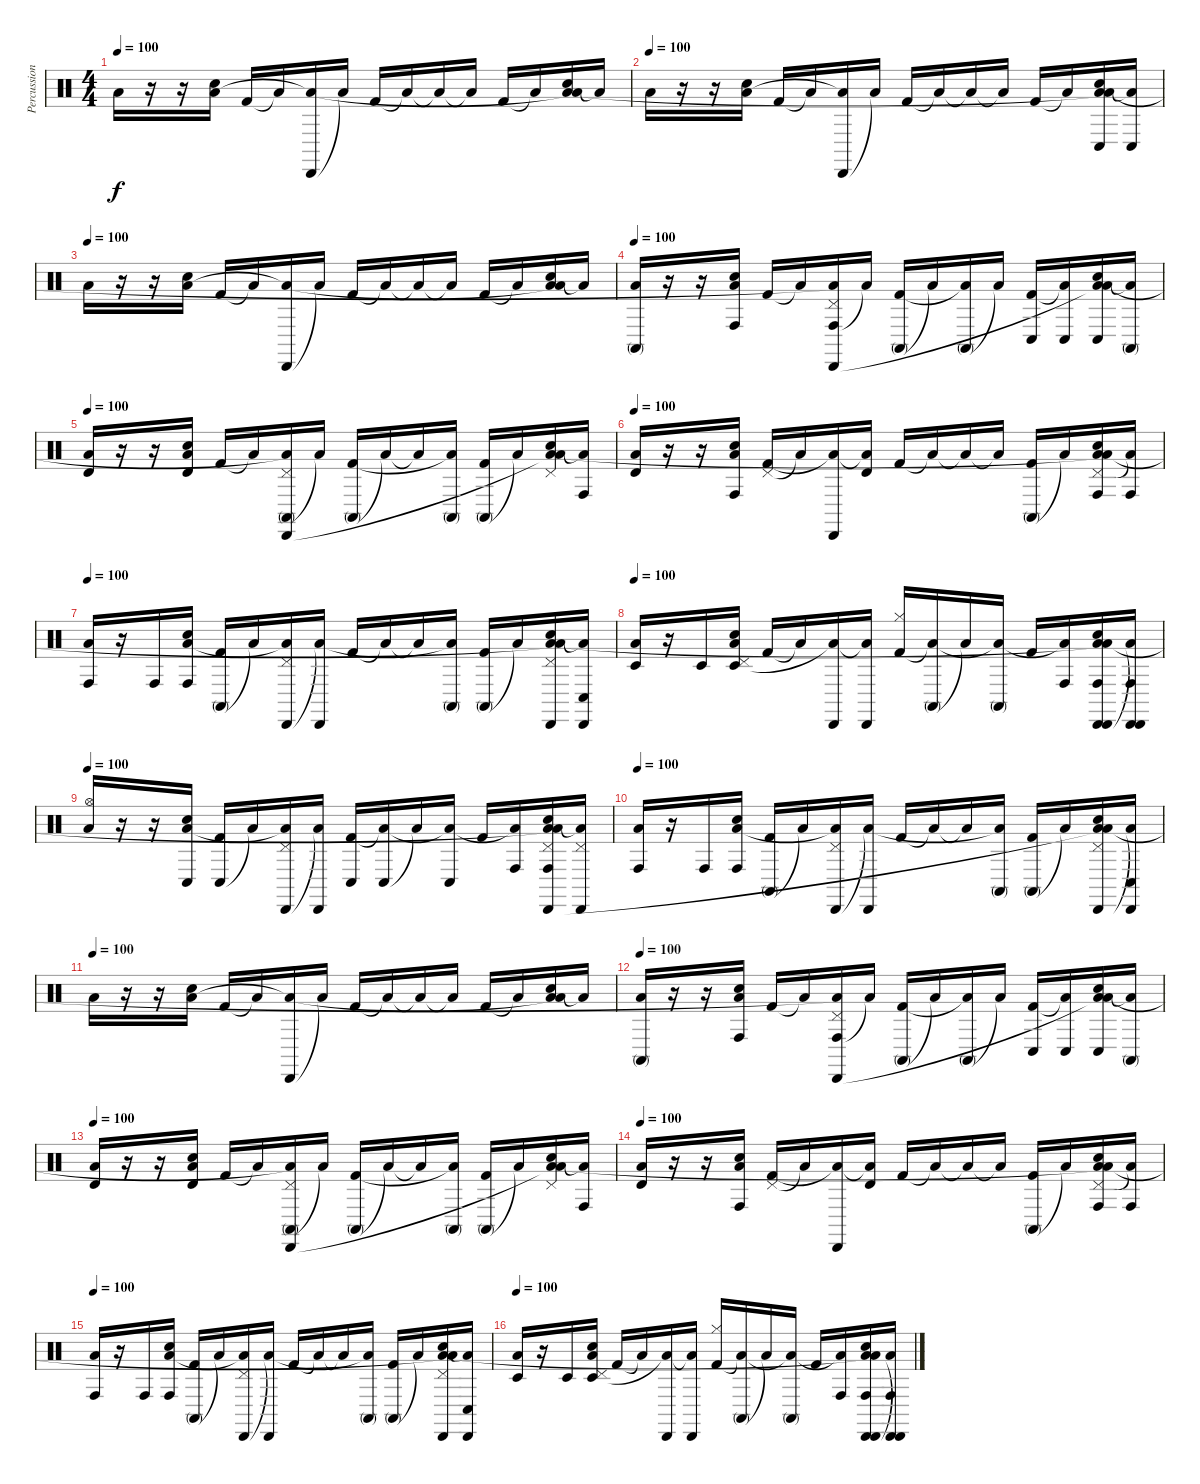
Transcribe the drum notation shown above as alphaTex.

\track ("Percussion" "Percussion") {instrument percussion}
\staff {score}
\articulation defaults
\ts (4 4)
\tempo 100
\clef neutral
\ks c "Low Floor Tom (hit)".16{dy f}
r.16 r.16 ("Hand Clap (hit)" "Low Tom (hit)").16 "Kick (hit) 2".16 "Low Tom (hit)"{t}.16 ("Cabasa (hit)" "Low Tom (hit)"{t}).16 "Low Tom (hit)"{t}.16 "Kick (hit) 2".16 "Low Tom (hit)"{t}.16 "Low Tom (hit)"{t}.16 "Low Tom (hit)"{t}.16 "Kick (hit) 2".16 "Low Tom (hit)"{t}.16 ("Hand Clap (hit)" "Low Tom (hit)"{t} "Low Floor Tom (hit)").16 "Low Tom (hit)"{t}.16 |
\tempo (100)
"Low Floor Tom (hit)".16 r.16 r.16 ("Hand Clap (hit)" "Low Tom (hit)").16 "Kick (hit) 2".16 "Low Tom (hit)"{t}.16 ("Cabasa (hit)" "Low Tom (hit)"{t}).16 "Low Tom (hit)"{t}.16 "Kick (hit) 2".16 "Low Tom (hit)"{t}.16 "Low Tom (hit)"{t}.16 "Low Tom (hit)"{t}.16 "Kick (hit) 2".16 "Low Tom (hit)"{t}.16 ("Conga low (hit)" "Hand Clap (hit)" "Low Tom (hit)"{t} "Low Floor Tom (hit)").16 ("Conga low (hit)" "Low Tom (hit)"{t}).16 |
\tempo (100)
"Low Floor Tom (hit)".16 r.16 r.16 ("Hand Clap (hit)" "Low Tom (hit)").16 "Kick (hit) 2".16 "Low Tom (hit)"{t}.16 ("Cabasa (hit)" "Low Tom (hit)"{t}).16 "Low Tom (hit)"{t}.16 "Kick (hit) 2".16 "Low Tom (hit)"{t}.16 "Low Tom (hit)"{t}.16 "Low Tom (hit)"{t}.16 "Kick (hit) 2".16 "Low Tom (hit)"{t}.16 ("Hand Clap (hit)" "Low Tom (hit)"{t} "Low Floor Tom (hit)").16 "Low Tom (hit)"{t}.16 |
\tempo 100
("Conga high (mute)" "Low Floor Tom (hit)").16 r.16 r.16 ("Conga high (hit)" "Hand Clap (hit)" "Low Tom (hit)").16 "Kick (hit) 2".16 "Low Tom (hit)"{t}.16 ("Conga high (hit)" "Pedal Hi-Hat (hit)" "Cabasa (hit)" "Low Tom (hit)"{t}).16 "Low Tom (hit)"{t}.16 ("Conga high (mute)" "Kick (hit) 2").16 "Low Tom (hit)"{t}.16 ("Conga high (mute)" "Low Tom (hit)"{t}).16 "Low Tom (hit)"{t}.16 ("Conga low (hit)" "Kick (hit) 2").16 ("Conga low (hit)" "Low Tom (hit)"{t}).16 ("Conga low (hit)" "Hand Clap (hit)" "Low Tom (hit)"{t} "Low Floor Tom (hit)").16 ("Conga high (mute)" "Low Tom (hit)"{t}).16 |
\tempo 100
("Timbale high (hit)" "Low Floor Tom (hit)").16 r.16 r.16 ("Timbale high (hit)" "Hand Clap (hit)" "Low Tom (hit)").16 "Kick (hit) 2".16 "Low Tom (hit)"{t}.16 ("Conga high (mute)" "Pedal Hi-Hat (hit)" "Cabasa (hit)" "Low Tom (hit)"{t}).16 "Low Tom (hit)"{t}.16 ("Conga high (mute)" "Kick (hit) 2").16 "Low Tom (hit)"{t}.16 "Low Tom (hit)"{t}.16 ("Conga high (mute)" "Low Tom (hit)"{t}).16 ("Conga high (mute)" "Kick (hit) 2").16 "Low Tom (hit)"{t}.16 ("Pedal Hi-Hat (hit)" "Hand Clap (hit)" "Low Tom (hit)"{t} "Low Floor Tom (hit)").16 ("Conga high (hit)" "Low Tom (hit)"{t}).16 |
\tempo 100
("Timbale high (hit)" "Low Floor Tom (hit)").16 r.16 r.16 ("Conga high (hit)" "Hand Clap (hit)" "Low Tom (hit)").16 ("Pedal Hi-Hat (hit)" "Kick (hit) 2").16 "Low Tom (hit)"{t}.16 ("Cabasa (hit)" "Low Tom (hit)"{t}).16 ("Timbale high (hit)" "Low Tom (hit)"{t}).16 "Kick (hit) 2".16 "Low Tom (hit)"{t}.16 "Low Tom (hit)"{t}.16 "Low Tom (hit)"{t}.16 ("Conga high (mute)" "Kick (hit) 2").16 "Low Tom (hit)"{t}.16 ("Conga high (hit)" "Pedal Hi-Hat (hit)" "Hand Clap (hit)" "Low Tom (hit)"{t} "Low Floor Tom (hit)").16 ("Conga high (hit)" "Low Tom (hit)"{t}).16 |
\tempo 100
("Conga high (hit)" "Low Floor Tom (hit)").16 r.16 "Conga high (hit)".16 ("Conga high (hit)" "Hand Clap (hit)" "Low Tom (hit)").16 ("Conga high (mute)" "Kick (hit) 2").16 "Low Tom (hit)"{t}.16 ("Pedal Hi-Hat (hit)" "Cabasa (hit)" "Low Tom (hit)"{t}).16 ("Cabasa (hit)" "Low Tom (hit)"{t}).16 "Kick (hit) 2".16 "Low Tom (hit)"{t}.16 "Low Tom (hit)"{t}.16 ("Conga high (mute)" "Low Tom (hit)"{t}).16 ("Conga high (mute)" "Kick (hit) 2").16 "Low Tom (hit)"{t}.16 ("Pedal Hi-Hat (hit)" "Cabasa (hit)" "Hand Clap (hit)" "Low Tom (hit)"{t} "Low Floor Tom (hit)").16 ("Conga low (hit)" "Cabasa (hit)" "Low Tom (hit)"{t}).16 |
\tempo 100
("Timbale low (hit)" "Low Floor Tom (hit)").16 r.16 "Timbale low (hit)".16 ("Pedal Hi-Hat (hit)" "Timbale low (hit)" "Hand Clap (hit)" "Low Tom (hit)").16 "Kick (hit) 2".16 "Low Tom (hit)"{t}.16 ("Cabasa (hit)" "Low Tom (hit)"{t}).16 ("Cabasa (hit)" "Low Tom (hit)"{t}).16 ("Hi-Hat (closed)" "Kick (hit) 2").16 ("Conga high (mute)" "Low Tom (hit)"{t}).16 "Low Tom (hit)"{t}.16 ("Conga high (mute)" "Low Tom (hit)"{t}).16 "Kick (hit) 2".16 ("Conga high (hit)" "Low Tom (hit)"{t}).16 ("Cabasa (hit)" "Conga high (hit)" "Hand Clap (hit)" "Cabasa (hit)" "Low Tom (hit)"{t} "Low Floor Tom (hit)").16 ("Cabasa (hit)" "Conga high (hit)" "Cabasa (hit)" "Low Tom (hit)"{t}).16 |
\tempo 100
("Hi-Hat (open)" "Low Floor Tom (hit)").16 r.16 r.16 ("Conga low (hit)" "Hand Clap (hit)" "Low Tom (hit)").16 ("Conga low (hit)" "Kick (hit) 2").16 "Low Tom (hit)"{t}.16 ("Pedal Hi-Hat (hit)" "Cabasa (hit)" "Low Tom (hit)"{t}).16 ("Cabasa (hit)" "Low Tom (hit)"{t}).16 ("Conga low (hit)" "Kick (hit) 2").16 ("Conga low (hit)" "Low Tom (hit)"{t}).16 "Low Tom (hit)"{t}.16 ("Conga low (hit)" "Low Tom (hit)"{t}).16 "Kick (hit) 2".16 ("Conga high (hit)" "Low Tom (hit)"{t}).16 ("Pedal Hi-Hat (hit)" "Conga high (hit)" "Hand Clap (hit)" "Cabasa (hit)" "Low Tom (hit)"{t} "Low Floor Tom (hit)").16 ("Pedal Hi-Hat (hit)" "Cabasa (hit)" "Low Tom (hit)"{t}).16 |
\tempo 100
("Conga high (hit)" "Low Floor Tom (hit)").16 r.16 "Conga high (hit)".16 ("Conga high (hit)" "Hand Clap (hit)" "Low Tom (hit)").16 ("Conga high (mute)" "Kick (hit) 2").16 "Low Tom (hit)"{t}.16 ("Pedal Hi-Hat (hit)" "Cabasa (hit)" "Low Tom (hit)"{t}).16 ("Cabasa (hit)" "Low Tom (hit)"{t}).16 "Kick (hit) 2".16 "Low Tom (hit)"{t}.16 "Low Tom (hit)"{t}.16 ("Conga high (mute)" "Low Tom (hit)"{t}).16 ("Conga high (mute)" "Kick (hit) 2").16 "Low Tom (hit)"{t}.16 ("Pedal Hi-Hat (hit)" "Hand Clap (hit)" "Cabasa (hit)" "Low Tom (hit)"{t} "Low Floor Tom (hit)").16 ("Conga low (hit)" "Cabasa (hit)" "Low Tom (hit)"{t}).16 |
\tempo (100)
"Low Floor Tom (hit)".16 r.16 r.16 ("Hand Clap (hit)" "Low Tom (hit)").16 "Kick (hit) 2".16 "Low Tom (hit)"{t}.16 ("Cabasa (hit)" "Low Tom (hit)"{t}).16 "Low Tom (hit)"{t}.16 "Kick (hit) 2".16 "Low Tom (hit)"{t}.16 "Low Tom (hit)"{t}.16 "Low Tom (hit)"{t}.16 "Kick (hit) 2".16 "Low Tom (hit)"{t}.16 ("Hand Clap (hit)" "Low Tom (hit)"{t} "Low Floor Tom (hit)").16 "Low Tom (hit)"{t}.16 |
\tempo 100
("Conga high (mute)" "Low Floor Tom (hit)").16 r.16 r.16 ("Conga high (hit)" "Hand Clap (hit)" "Low Tom (hit)").16 "Kick (hit) 2".16 "Low Tom (hit)"{t}.16 ("Conga high (hit)" "Pedal Hi-Hat (hit)" "Cabasa (hit)" "Low Tom (hit)"{t}).16 "Low Tom (hit)"{t}.16 ("Conga high (mute)" "Kick (hit) 2").16 "Low Tom (hit)"{t}.16 ("Conga high (mute)" "Low Tom (hit)"{t}).16 "Low Tom (hit)"{t}.16 ("Conga low (hit)" "Kick (hit) 2").16 ("Conga low (hit)" "Low Tom (hit)"{t}).16 ("Conga low (hit)" "Hand Clap (hit)" "Low Tom (hit)"{t} "Low Floor Tom (hit)").16 ("Conga high (mute)" "Low Tom (hit)"{t}).16 |
\tempo 100
("Timbale high (hit)" "Low Floor Tom (hit)").16 r.16 r.16 ("Timbale high (hit)" "Hand Clap (hit)" "Low Tom (hit)").16 "Kick (hit) 2".16 "Low Tom (hit)"{t}.16 ("Conga high (mute)" "Pedal Hi-Hat (hit)" "Cabasa (hit)" "Low Tom (hit)"{t}).16 "Low Tom (hit)"{t}.16 ("Conga high (mute)" "Kick (hit) 2").16 "Low Tom (hit)"{t}.16 "Low Tom (hit)"{t}.16 ("Conga high (mute)" "Low Tom (hit)"{t}).16 ("Conga high (mute)" "Kick (hit) 2").16 "Low Tom (hit)"{t}.16 ("Pedal Hi-Hat (hit)" "Hand Clap (hit)" "Low Tom (hit)"{t} "Low Floor Tom (hit)").16 ("Conga high (hit)" "Low Tom (hit)"{t}).16 |
\tempo 100
("Timbale high (hit)" "Low Floor Tom (hit)").16 r.16 r.16 ("Conga high (hit)" "Hand Clap (hit)" "Low Tom (hit)").16 ("Pedal Hi-Hat (hit)" "Kick (hit) 2").16 "Low Tom (hit)"{t}.16 ("Cabasa (hit)" "Low Tom (hit)"{t}).16 ("Timbale high (hit)" "Low Tom (hit)"{t}).16 "Kick (hit) 2".16 "Low Tom (hit)"{t}.16 "Low Tom (hit)"{t}.16 "Low Tom (hit)"{t}.16 ("Conga high (mute)" "Kick (hit) 2").16 "Low Tom (hit)"{t}.16 ("Conga high (hit)" "Pedal Hi-Hat (hit)" "Hand Clap (hit)" "Low Tom (hit)"{t} "Low Floor Tom (hit)").16 ("Conga high (hit)" "Low Tom (hit)"{t}).16 |
\tempo 100
("Conga high (hit)" "Low Floor Tom (hit)").16 r.16 "Conga high (hit)".16 ("Conga high (hit)" "Hand Clap (hit)" "Low Tom (hit)").16 ("Conga high (mute)" "Kick (hit) 2").16 "Low Tom (hit)"{t}.16 ("Pedal Hi-Hat (hit)" "Cabasa (hit)" "Low Tom (hit)"{t}).16 ("Cabasa (hit)" "Low Tom (hit)"{t}).16 "Kick (hit) 2".16 "Low Tom (hit)"{t}.16 "Low Tom (hit)"{t}.16 ("Conga high (mute)" "Low Tom (hit)"{t}).16 ("Conga high (mute)" "Kick (hit) 2").16 "Low Tom (hit)"{t}.16 ("Pedal Hi-Hat (hit)" "Cabasa (hit)" "Hand Clap (hit)" "Low Tom (hit)"{t} "Low Floor Tom (hit)").16 ("Conga low (hit)" "Cabasa (hit)" "Low Tom (hit)"{t}).16 |
\tempo 100
("Timbale low (hit)" "Low Floor Tom (hit)").16 r.16 "Timbale low (hit)".16 ("Pedal Hi-Hat (hit)" "Timbale low (hit)" "Hand Clap (hit)" "Low Tom (hit)").16 "Kick (hit) 2".16 "Low Tom (hit)"{t}.16 ("Cabasa (hit)" "Low Tom (hit)"{t}).16 ("Cabasa (hit)" "Low Tom (hit)"{t}).16 ("Hi-Hat (closed)" "Kick (hit) 2").16 ("Conga high (mute)" "Low Tom (hit)"{t}).16 "Low Tom (hit)"{t}.16 ("Conga high (mute)" "Low Tom (hit)"{t}).16 "Kick (hit) 2".16 ("Conga high (hit)" "Low Tom (hit)"{t}).16 ("Cabasa (hit)" "Conga high (hit)" "Hand Clap (hit)" "Cabasa (hit)" "Low Tom (hit)"{t} "Low Floor Tom (hit)").16 ("Cabasa (hit)" "Conga high (hit)" "Cabasa (hit)" "Low Tom (hit)"{t}).16
